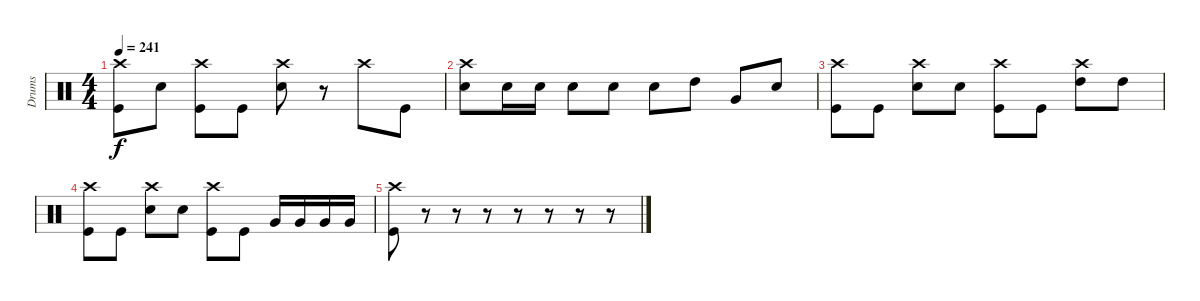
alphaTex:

\track ("Drums" "Drums") {instrument percussion}
\staff {score}
\articulation defaults
\ts (4 4)
\tempo 241
\clef neutral
\ks c
("Crash high (hit)" "Kick (hit)").8{dy f} "Electric Snare (hit)".8 ("Crash high (hit)" "Kick (hit)").8 "Kick (hit)".8 ("Crash high (hit)" "Electric Snare (hit)").8 r.8 "Crash high (hit)".8 "Kick (hit)".8 |
("Crash high (hit)" "Electric Snare (hit)").8 "Electric Snare (hit)".16 "Electric Snare (hit)".16 "Electric Snare (hit)".8 "Electric Snare (hit)".8 "Electric Snare (hit)".8 "High Tom (hit)".8 "Very Low Tom (hit)".8 "Electric Snare (hit)".8 |
("Crash high (hit)" "Kick (hit)").8 "Kick (hit)".8 ("Crash high (hit)" "Electric Snare (hit)").8 "Electric Snare (hit)".8 ("Crash high (hit)" "Kick (hit)").8 "Kick (hit)".8 ("Crash high (hit)" "High Tom (hit)").8 "High Tom (hit)".8 |
("Crash high (hit)" "Kick (hit)").8 "Kick (hit)".8 ("Crash high (hit)" "Electric Snare (hit)").8 "Electric Snare (hit)".8 ("Crash high (hit)" "Kick (hit)").8 "Kick (hit)".8 "Very Low Tom (hit)".16 "Very Low Tom (hit)".16 "Very Low Tom (hit)".16 "Very Low Tom (hit)".16 |
("Crash high (hit)" "Kick (hit)").8 r.8 r.8 r.8 r.8 r.8 r.8 r.8
